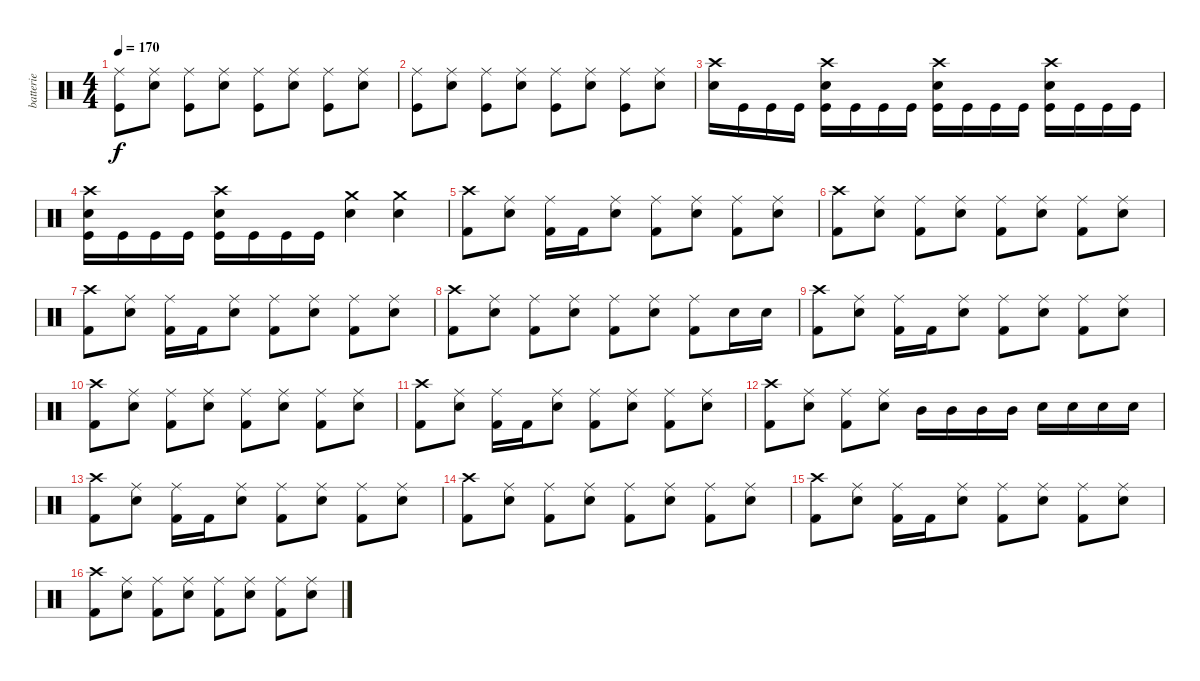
\track ("batterie" "batterie") {instrument percussion}
\staff {score}
\articulation defaults
\ts (4 4)
\tempo 170
\clef neutral
\ks c
("Ride (middle)" "Kick (hit)").8{dy f} ("Ride (middle)" "Snare (hit) 2").8 ("Ride (middle)" "Kick (hit)").8 ("Ride (middle)" "Snare (hit) 2").8 ("Ride (middle)" "Kick (hit)").8 ("Ride (middle)" "Snare (hit) 2").8 ("Ride (middle)" "Kick (hit)").8 ("Ride (middle)" "Snare (hit) 2").8 |
("Ride (middle)" "Kick (hit)").8 ("Ride (middle)" "Snare (hit) 2").8 ("Ride (middle)" "Kick (hit)").8 ("Ride (middle)" "Snare (hit) 2").8 ("Ride (middle)" "Kick (hit)").8 ("Ride (middle)" "Snare (hit) 2").8 ("Ride (middle)" "Kick (hit)").8 ("Ride (middle)" "Snare (hit) 2").8 |
("Crash high (hit)" "Snare (hit) 2").16 "Kick (hit)".16 "Kick (hit)".16 "Kick (hit)".16 ("Crash high (hit)" "Snare (hit) 2" "Kick (hit)").16 "Kick (hit)".16 "Kick (hit)".16 "Kick (hit)".16 ("Crash high (hit)" "Snare (hit) 2" "Kick (hit)").16 "Kick (hit)".16 "Kick (hit)".16 "Kick (hit)".16 ("Crash high (hit)" "Snare (hit) 2" "Kick (hit)").16 "Kick (hit)".16 "Kick (hit)".16 "Kick (hit)".16 |
("Crash high (hit)" "Snare (hit) 2" "Kick (hit)").16 "Kick (hit)".16 "Kick (hit)".16 "Kick (hit)".16 ("Crash high (hit)" "Snare (hit) 2" "Kick (hit)").16 "Kick (hit)".16 "Kick (hit)".16 "Kick (hit)".16 ("Crash medium (hit)" "Snare (hit) 2").4 ("Crash medium (hit)" "Snare (hit) 2").4 |
("Crash high (hit)" "Kick (hit) 2").8 ("Ride (middle)" "Snare (hit) 2").8 ("Ride (middle)" "Kick (hit) 2").16 "Kick (hit) 2".16 ("Ride (middle)" "Snare (hit) 2").8 ("Ride (middle)" "Kick (hit) 2").8 ("Ride (middle)" "Snare (hit) 2").8 ("Ride (middle)" "Kick (hit) 2").8 ("Ride (middle)" "Snare (hit) 2").8 |
("Crash high (hit)" "Kick (hit) 2").8 ("Ride (middle)" "Snare (hit) 2").8 ("Ride (middle)" "Kick (hit) 2").8 ("Ride (middle)" "Snare (hit) 2").8 ("Ride (middle)" "Kick (hit) 2").8 ("Ride (middle)" "Snare (hit) 2").8 ("Ride (middle)" "Kick (hit) 2").8 ("Ride (middle)" "Snare (hit) 2").8 |
("Crash high (hit)" "Kick (hit) 2").8 ("Ride (middle)" "Snare (hit) 2").8 ("Ride (middle)" "Kick (hit) 2").16 "Kick (hit) 2".16 ("Ride (middle)" "Snare (hit) 2").8 ("Ride (middle)" "Kick (hit) 2").8 ("Ride (middle)" "Snare (hit) 2").8 ("Ride (middle)" "Kick (hit) 2").8 ("Ride (middle)" "Snare (hit) 2").8 |
("Crash high (hit)" "Kick (hit) 2").8 ("Ride (middle)" "Snare (hit) 2").8 ("Ride (middle)" "Kick (hit) 2").8 ("Ride (middle)" "Snare (hit) 2").8 ("Ride (middle)" "Kick (hit) 2").8 ("Ride (middle)" "Snare (hit) 2").8 ("Ride (middle)" "Kick (hit) 2").8 "Snare (hit) 2".16 "Snare (hit) 2".16 |
("Crash high (hit)" "Kick (hit) 2").8 ("Ride (middle)" "Snare (hit) 2").8 ("Ride (middle)" "Kick (hit) 2").16 "Kick (hit) 2".16 ("Ride (middle)" "Snare (hit) 2").8 ("Ride (middle)" "Kick (hit) 2").8 ("Ride (middle)" "Snare (hit) 2").8 ("Ride (middle)" "Kick (hit) 2").8 ("Ride (middle)" "Snare (hit) 2").8 |
("Crash high (hit)" "Kick (hit) 2").8 ("Ride (middle)" "Snare (hit) 2").8 ("Ride (middle)" "Kick (hit) 2").8 ("Ride (middle)" "Snare (hit) 2").8 ("Ride (middle)" "Kick (hit) 2").8 ("Ride (middle)" "Snare (hit) 2").8 ("Ride (middle)" "Kick (hit) 2").8 ("Ride (middle)" "Snare (hit) 2").8 |
("Crash high (hit)" "Kick (hit) 2").8 ("Ride (middle)" "Snare (hit) 2").8 ("Ride (middle)" "Kick (hit) 2").16 "Kick (hit) 2".16 ("Ride (middle)" "Snare (hit) 2").8 ("Ride (middle)" "Kick (hit) 2").8 ("Ride (middle)" "Snare (hit) 2").8 ("Ride (middle)" "Kick (hit) 2").8 ("Ride (middle)" "Snare (hit) 2").8 |
("Crash high (hit)" "Kick (hit) 2").8 ("Ride (middle)" "Snare (hit) 2").8 ("Ride (middle)" "Kick (hit) 2").8 ("Ride (middle)" "Snare (hit) 2").8 "Mid Tom (hit)".16 "Mid Tom (hit)".16 "Mid Tom (hit)".16 "Mid Tom (hit)".16 "Snare (hit) 2".16 "Snare (hit) 2".16 "Snare (hit) 2".16 "Snare (hit) 2".16 |
("Crash high (hit)" "Kick (hit) 2").8 ("Ride (middle)" "Snare (hit) 2").8 ("Ride (middle)" "Kick (hit) 2").16 "Kick (hit) 2".16 ("Ride (middle)" "Snare (hit) 2").8 ("Ride (middle)" "Kick (hit) 2").8 ("Ride (middle)" "Snare (hit) 2").8 ("Ride (middle)" "Kick (hit) 2").8 ("Ride (middle)" "Snare (hit) 2").8 |
("Crash high (hit)" "Kick (hit) 2").8 ("Ride (middle)" "Snare (hit) 2").8 ("Ride (middle)" "Kick (hit) 2").8 ("Ride (middle)" "Snare (hit) 2").8 ("Ride (middle)" "Kick (hit) 2").8 ("Ride (middle)" "Snare (hit) 2").8 ("Ride (middle)" "Kick (hit) 2").8 ("Ride (middle)" "Snare (hit) 2").8 |
("Crash high (hit)" "Kick (hit) 2").8 ("Ride (middle)" "Snare (hit) 2").8 ("Ride (middle)" "Kick (hit) 2").16 "Kick (hit) 2".16 ("Ride (middle)" "Snare (hit) 2").8 ("Ride (middle)" "Kick (hit) 2").8 ("Ride (middle)" "Snare (hit) 2").8 ("Ride (middle)" "Kick (hit) 2").8 ("Ride (middle)" "Snare (hit) 2").8 |
("Crash high (hit)" "Kick (hit) 2").8 ("Ride (middle)" "Snare (hit) 2").8 ("Ride (middle)" "Kick (hit) 2").8 ("Ride (middle)" "Snare (hit) 2").8 ("Ride (middle)" "Kick (hit) 2").8 ("Ride (middle)" "Snare (hit) 2").8 ("Ride (middle)" "Kick (hit) 2").8 ("Ride (middle)" "Snare (hit) 2").8
